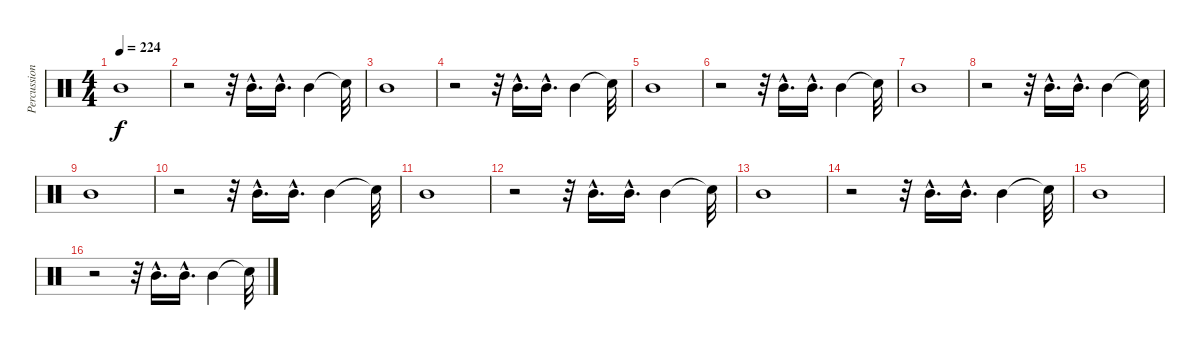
\track ("Percussions" "Percussion") {instrument percussion}
\staff {score}
\articulation defaults
\ts (4 4)
\tempo 224
\clef neutral
\ks c "Mid Tom (hit)".1{dy f}
|
r.2 r.32 "Mid Tom (hit)"{hac}.16{d} "Mid Tom (hit)"{hac}.16{d} "Mid Tom (hit)".4 "Snare (hit)"{t}.32 |
"Mid Tom (hit)".1 |
r.2 r.32 "Mid Tom (hit)"{hac}.16{d} "Mid Tom (hit)"{hac}.16{d} "Mid Tom (hit)".4 "Snare (hit)"{t}.32 |
"Mid Tom (hit)".1 |
r.2 r.32 "Mid Tom (hit)"{hac}.16{d} "Mid Tom (hit)"{hac}.16{d} "Mid Tom (hit)".4 "Snare (hit)"{t}.32 |
"Mid Tom (hit)".1 |
r.2 r.32 "Mid Tom (hit)"{hac}.16{d} "Mid Tom (hit)"{hac}.16{d} "Mid Tom (hit)".4 "Snare (hit)"{t}.32 |
"Mid Tom (hit)".1 |
r.2 r.32 "Mid Tom (hit)"{hac}.16{d} "Mid Tom (hit)"{hac}.16{d} "Mid Tom (hit)".4 "Snare (hit)"{t}.32 |
"Mid Tom (hit)".1 |
r.2 r.32 "Mid Tom (hit)"{hac}.16{d} "Mid Tom (hit)"{hac}.16{d} "Mid Tom (hit)".4 "Snare (hit)"{t}.32 |
"Mid Tom (hit)".1 |
r.2 r.32 "Mid Tom (hit)"{hac}.16{d} "Mid Tom (hit)"{hac}.16{d} "Mid Tom (hit)".4 "Snare (hit)"{t}.32 |
"Mid Tom (hit)".1 |
r.2 r.32 "Mid Tom (hit)"{hac}.16{d} "Mid Tom (hit)"{hac}.16{d} "Mid Tom (hit)".4 "Snare (hit)"{t}.32
